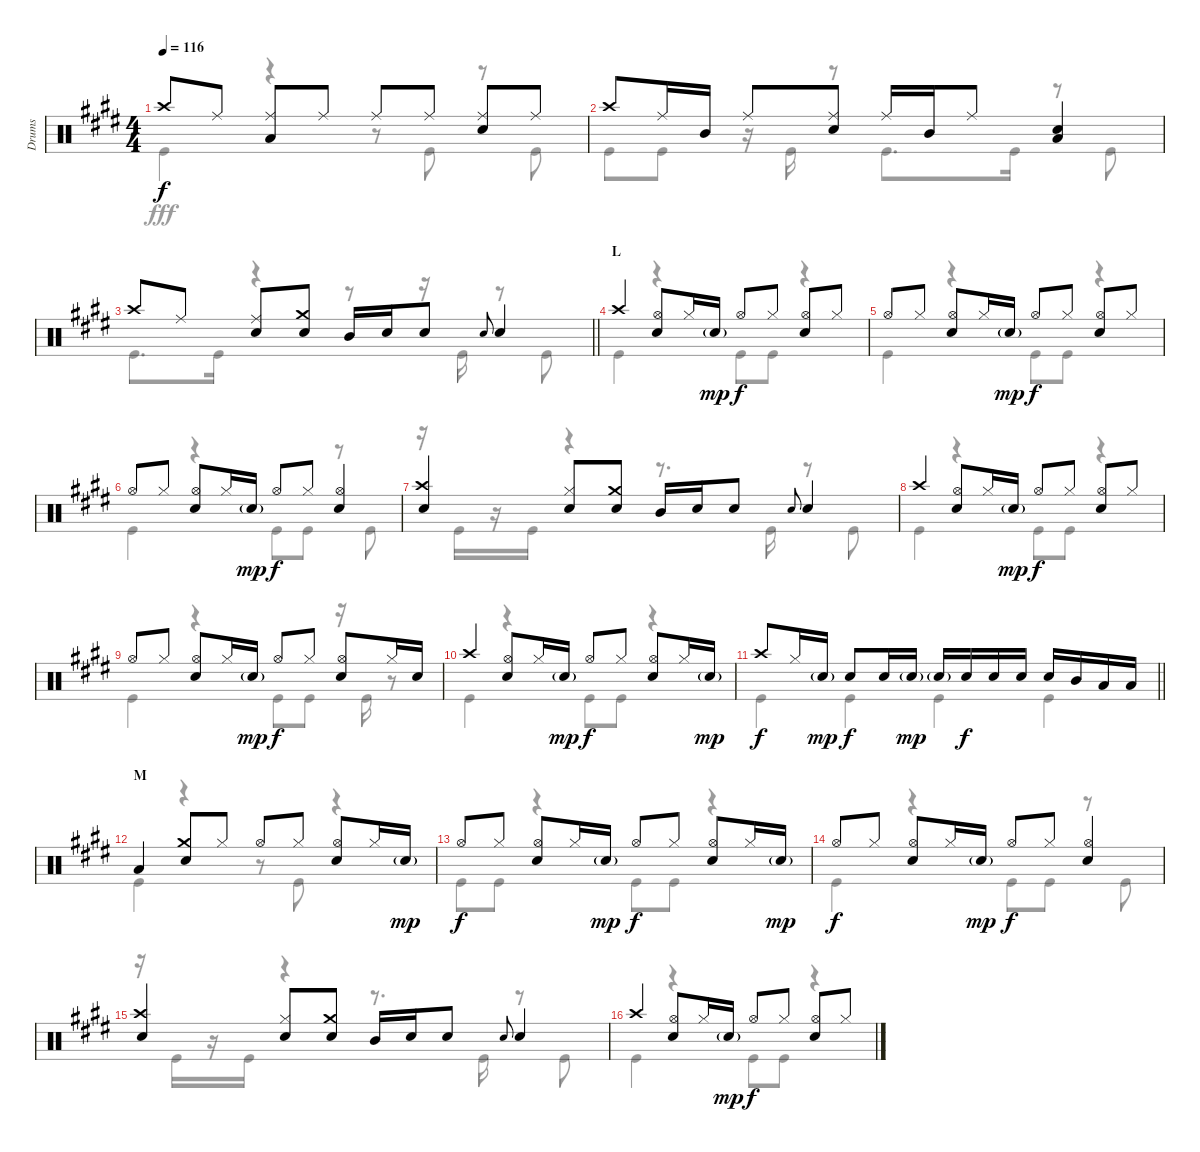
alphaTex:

\track ("Drums" "Drums") {instrument percussion}
\staff {score}
\articulation defaults
\voice
\ts (4 4)
\tempo 116
\clef neutral
\ks e "Crash high (hit)".8{dy f} "Ride (middle)".8
("Ride (middle)" "Low Tom (hit)").8 "Ride (middle)".8 "Ride (middle)".8 "Ride (middle)".8 ("Ride (middle)" "Snare (hit) 2").8 "Ride (middle)".8 |
"Crash high (hit)".8 "Ride (middle)".16 "Mid Tom (hit)".16 "Ride (middle)".8 ("Ride (middle)" "Snare (hit) 2").8 "Ride (middle)".16 "Mid Tom (hit)".16 "Ride (middle)".8 ("Snare (hit) 2" "Low Tom (hit)").4 |
\barLineRight lightlight "Crash high (hit)".8 "Ride (middle)".8
("Ride (middle)" "Snare (hit) 2").8 ("Crash medium (hit)" "Snare (hit) 2").8 "Mid Tom (hit)".16 "Snare (hit) 2".16 "Snare (hit) 2".8 "Snare (hit) 2".8{gr onbeat} "Snare (hit) 2".4 |
\section ("" "L")
"Crash high (hit)".4 ("Hi-Hat (open)" "Snare (hit) 2").8 "Hi-Hat (closed)".16 "Snare (hit) 2"{g}.16{dy mp} "Hi-Hat (open)".8{dy f} "Hi-Hat (closed)".8 ("Snare (hit) 2" "Hi-Hat (open)").8 "Hi-Hat (closed)".8 |
"Hi-Hat (open)".8 "Hi-Hat (closed)".8 ("Hi-Hat (open)" "Snare (hit) 2").8 "Hi-Hat (closed)".16 "Snare (hit) 2"{g}.16{dy mp} "Hi-Hat (open)".8{dy f} "Hi-Hat (closed)".8 ("Hi-Hat (open)" "Snare (hit) 2").8 "Hi-Hat (closed)".8 |
"Hi-Hat (open)".8 "Hi-Hat (closed)".8 ("Hi-Hat (open)" "Snare (hit) 2").8 "Hi-Hat (closed)".16 "Snare (hit) 2"{g}.16{dy mp} "Hi-Hat (open)".8{dy f} "Hi-Hat (closed)".8 ("Hi-Hat (open)" "Snare (hit) 2").4 |
("Crash high (hit)" "Snare (hit) 2").4 ("Hi-Hat (closed)" "Snare (hit) 2").8 ("Crash medium (hit)" "Snare (hit) 2").8 "Mid Tom (hit)".16 "Snare (hit) 2".16 "Snare (hit) 2".8 "Snare (hit) 2".8{gr onbeat} "Snare (hit) 2".4 |
"Crash high (hit)".4 ("Hi-Hat (open)" "Snare (hit) 2").8 "Hi-Hat (closed)".16 "Snare (hit) 2"{g}.16{dy mp} "Hi-Hat (open)".8{dy f} "Hi-Hat (closed)".8 ("Snare (hit) 2" "Hi-Hat (open)").8 "Hi-Hat (closed)".8 |
"Hi-Hat (open)".8 "Hi-Hat (closed)".8 ("Hi-Hat (open)" "Snare (hit) 2").8 "Hi-Hat (closed)".16 "Snare (hit) 2"{g}.16{dy mp} "Hi-Hat (open)".8{dy f} "Hi-Hat (closed)".8 ("Hi-Hat (open)" "Snare (hit) 2").8 "Hi-Hat (closed)".16 "Snare (hit) 2".16 |
"Crash high (hit)".4 ("Hi-Hat (open)" "Snare (hit) 2").8 "Hi-Hat (closed)".16 "Snare (hit) 2"{g}.16{dy mp} "Hi-Hat (open)".8{dy f} "Hi-Hat (closed)".8 ("Hi-Hat (open)" "Snare (hit) 2").8 "Hi-Hat (closed)".16 "Snare (hit) 2"{g}.16{dy mp} |
\barLineRight lightlight "Crash high (hit)".8{dy f} "Hi-Hat (closed)".16 "Snare (hit) 2"{g}.16{dy mp} "Snare (hit) 2".8{dy f} "Snare (hit) 2".16 "Snare (hit) 2"{g}.16{dy mp} "Snare (hit) 2"{g}.16 "Snare (hit) 2".16{dy f} "Snare (hit) 2".16 "Snare (hit) 2".16 "Snare (hit) 2".16 "Mid Tom (hit)".16 "Low Tom (hit)".16 "Low Tom (hit)".16
|
\section ("" "M")
"Low Tom (hit)".4 ("Crash medium (hit)" "Snare (hit) 2").8 "Hi-Hat (closed)".8 "Hi-Hat (open)".8 "Hi-Hat (closed)".8 ("Hi-Hat (open)" "Snare (hit) 2").8 "Hi-Hat (closed)".16 "Snare (hit) 2"{g}.16{dy mp} |
"Hi-Hat (open)".8{dy f} "Hi-Hat (closed)".8 ("Hi-Hat (open)" "Snare (hit) 2").8 "Hi-Hat (closed)".16 "Snare (hit) 2"{g}.16{dy mp} "Hi-Hat (open)".8{dy f} "Hi-Hat (closed)".8 ("Hi-Hat (open)" "Snare (hit) 2").8 "Hi-Hat (closed)".16 "Snare (hit) 2"{g}.16{dy mp} |
"Hi-Hat (open)".8{dy f} "Hi-Hat (closed)".8 ("Hi-Hat (open)" "Snare (hit) 2").8 "Hi-Hat (closed)".16 "Snare (hit) 2"{g}.16{dy mp} "Hi-Hat (open)".8{dy f} "Hi-Hat (closed)".8 ("Hi-Hat (open)" "Snare (hit) 2").4 |
("Crash high (hit)" "Snare (hit) 2").4 ("Hi-Hat (closed)" "Snare (hit) 2").8 ("Crash medium (hit)" "Snare (hit) 2").8 "Mid Tom (hit)".16 "Snare (hit) 2".16 "Snare (hit) 2".8 "Snare (hit) 2".8{gr onbeat} "Snare (hit) 2".4 |
"Crash high (hit)".4 ("Hi-Hat (open)" "Snare (hit) 2").8 "Hi-Hat (closed)".16 "Snare (hit) 2"{g}.16{dy mp} "Hi-Hat (open)".8{dy f} "Hi-Hat (closed)".8 ("Snare (hit) 2" "Hi-Hat (open)").8 "Hi-Hat (closed)".8
\voice
\clef neutral
\ottava regular
\simile none
\ks e "Kick (hit)".4{dy fff}
r.4 r.8 "Kick (hit)".8 r.8 "Kick (hit)".8 |
"Kick (hit)".8 "Kick (hit)".8 r.16 "Kick (hit)".16 r.8 "Kick (hit)".8{d} "Kick (hit)".16 r.8 "Kick (hit)".8 |
\barLineRight lightlight "Kick (hit)".8{d} "Kick (hit)".16
r.4 r.8 r.16 "Kick (hit)".16 r.8 "Kick (hit)".8 |
"Kick (hit)".4 r.4 "Kick (hit)".8 "Kick (hit)".8 r.4 |
"Kick (hit)".4 r.4 "Kick (hit)".8 "Kick (hit)".8 r.4 |
"Kick (hit)".4 r.4 "Kick (hit)".8 "Kick (hit)".8 r.8 "Kick (hit)".8 |
r.16 "Kick (hit)".16 r.16 "Kick (hit)".16 r.4 r.8{d} "Kick (hit)".16 r.8 "Kick (hit)".8 |
"Kick (hit)".4 r.4 "Kick (hit)".8 "Kick (hit)".8 r.4 |
"Kick (hit)".4 r.4 "Kick (hit)".8 "Kick (hit)".8 r.16 "Kick (hit)".16 r.8 |
"Kick (hit)".4 r.4 "Kick (hit)".8 "Kick (hit)".8 r.4 |
\barLineRight lightlight "Kick (hit)".4 "Kick (hit)".4 "Kick (hit)".4 "Kick (hit)".4
|
"Kick (hit)".4 r.4 r.8 "Kick (hit)".8 r.4 |
"Kick (hit)".8 "Kick (hit)".8 r.4 "Kick (hit)".8 "Kick (hit)".8 r.4 |
"Kick (hit)".4 r.4 "Kick (hit)".8 "Kick (hit)".8 r.8 "Kick (hit)".8 |
r.16 "Kick (hit)".16 r.16 "Kick (hit)".16 r.4 r.8{d} "Kick (hit)".16 r.8 "Kick (hit)".8 |
"Kick (hit)".4 r.4 "Kick (hit)".8 "Kick (hit)".8 r.4
